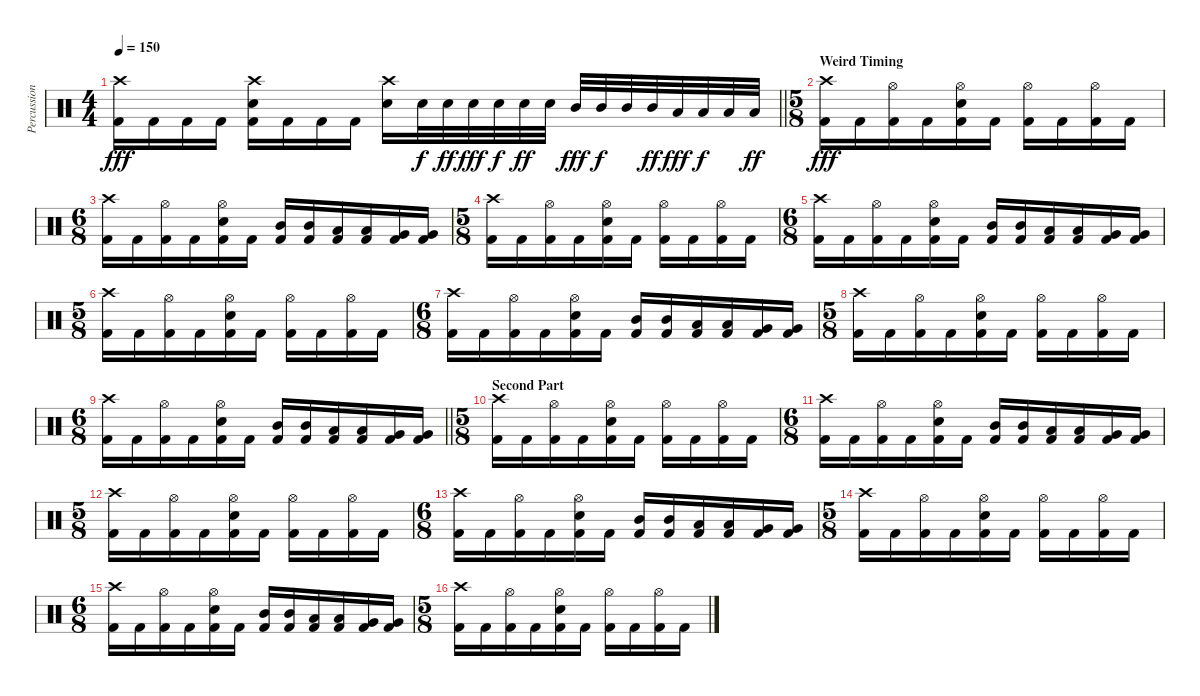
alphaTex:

\track ("Percussion" "Percussion") {instrument percussion}
\staff {score}
\articulation defaults
\ts (4 4)
\tempo 150
\clef neutral
\barLineRight lightlight
\ks c
("Crash high (hit)" "Kick (hit) 2").16{dy fff} "Kick (hit) 2".16 "Kick (hit) 2".16 "Kick (hit) 2".16 ("Crash high (hit)" "Snare (hit) 2" "Kick (hit) 2").16 "Kick (hit) 2".16 "Kick (hit) 2".16 "Kick (hit) 2".16 ("Crash high (hit)" "Snare (hit) 2").16 "Snare (hit) 2".32{dy f} "Snare (hit) 2".32{dy ff} "Snare (hit) 2".32{dy fff} "Snare (hit) 2".32{dy f} "Snare (hit) 2".32{dy ff} "Snare (hit) 2".32 "Mid Tom (hit)".32{dy fff} "Mid Tom (hit)".32{dy f} "Mid Tom (hit)".32 "Mid Tom (hit)".32{dy ff} "Low Tom (hit)".32{dy fff} "Low Tom (hit)".32{dy f} "Low Tom (hit)".32 "Low Tom (hit)".32{dy ff} |
\ts (5 8)
\section ("" "Weird Timing")
("Crash high (hit)" "Kick (hit) 2").16{dy fff} "Kick (hit) 2".16 ("Hi-Hat (open)" "Kick (hit) 2").16 "Kick (hit) 2".16 ("Snare (hit) 2" "Hi-Hat (open)" "Kick (hit) 2").16 "Kick (hit) 2".16 ("Hi-Hat (open)" "Kick (hit) 2").16 "Kick (hit) 2".16 ("Hi-Hat (open)" "Kick (hit) 2").16 "Kick (hit) 2".16 |
\ts (6 8)
("Crash high (hit)" "Kick (hit) 2").16 "Kick (hit) 2".16 ("Hi-Hat (open)" "Kick (hit) 2").16 "Kick (hit) 2".16 ("Snare (hit) 2" "Hi-Hat (open)" "Kick (hit) 2").16 "Kick (hit) 2".16 ("Mid Tom (hit)" "Kick (hit) 2").16 ("Mid Tom (hit)" "Kick (hit) 2").16 ("Low Tom (hit)" "Kick (hit) 2").16 ("Low Tom (hit)" "Kick (hit) 2").16 ("Very Low Tom (hit)" "Kick (hit) 2").16 ("Very Low Tom (hit)" "Kick (hit) 2").16 |
\ts (5 8)
("Crash high (hit)" "Kick (hit) 2").16 "Kick (hit) 2".16 ("Hi-Hat (open)" "Kick (hit) 2").16 "Kick (hit) 2".16 ("Snare (hit) 2" "Hi-Hat (open)" "Kick (hit) 2").16 "Kick (hit) 2".16 ("Hi-Hat (open)" "Kick (hit) 2").16 "Kick (hit) 2".16 ("Hi-Hat (open)" "Kick (hit) 2").16 "Kick (hit) 2".16 |
\ts (6 8)
("Crash high (hit)" "Kick (hit) 2").16 "Kick (hit) 2".16 ("Hi-Hat (open)" "Kick (hit) 2").16 "Kick (hit) 2".16 ("Snare (hit) 2" "Hi-Hat (open)" "Kick (hit) 2").16 "Kick (hit) 2".16 ("Mid Tom (hit)" "Kick (hit) 2").16 ("Mid Tom (hit)" "Kick (hit) 2").16 ("Low Tom (hit)" "Kick (hit) 2").16 ("Low Tom (hit)" "Kick (hit) 2").16 ("Very Low Tom (hit)" "Kick (hit) 2").16 ("Very Low Tom (hit)" "Kick (hit) 2").16 |
\ts (5 8)
("Crash high (hit)" "Kick (hit) 2").16 "Kick (hit) 2".16 ("Hi-Hat (open)" "Kick (hit) 2").16 "Kick (hit) 2".16 ("Snare (hit) 2" "Hi-Hat (open)" "Kick (hit) 2").16 "Kick (hit) 2".16 ("Hi-Hat (open)" "Kick (hit) 2").16 "Kick (hit) 2".16 ("Hi-Hat (open)" "Kick (hit) 2").16 "Kick (hit) 2".16 |
\ts (6 8)
("Crash high (hit)" "Kick (hit) 2").16 "Kick (hit) 2".16 ("Hi-Hat (open)" "Kick (hit) 2").16 "Kick (hit) 2".16 ("Snare (hit) 2" "Hi-Hat (open)" "Kick (hit) 2").16 "Kick (hit) 2".16 ("Mid Tom (hit)" "Kick (hit) 2").16 ("Mid Tom (hit)" "Kick (hit) 2").16 ("Low Tom (hit)" "Kick (hit) 2").16 ("Low Tom (hit)" "Kick (hit) 2").16 ("Very Low Tom (hit)" "Kick (hit) 2").16 ("Very Low Tom (hit)" "Kick (hit) 2").16 |
\ts (5 8)
("Crash high (hit)" "Kick (hit) 2").16 "Kick (hit) 2".16 ("Hi-Hat (open)" "Kick (hit) 2").16 "Kick (hit) 2".16 ("Snare (hit) 2" "Hi-Hat (open)" "Kick (hit) 2").16 "Kick (hit) 2".16 ("Hi-Hat (open)" "Kick (hit) 2").16 "Kick (hit) 2".16 ("Hi-Hat (open)" "Kick (hit) 2").16 "Kick (hit) 2".16 |
\ts (6 8)
\barLineRight lightlight
("Crash high (hit)" "Kick (hit) 2").16 "Kick (hit) 2".16 ("Hi-Hat (open)" "Kick (hit) 2").16 "Kick (hit) 2".16 ("Snare (hit) 2" "Hi-Hat (open)" "Kick (hit) 2").16 "Kick (hit) 2".16 ("Mid Tom (hit)" "Kick (hit) 2").16 ("Mid Tom (hit)" "Kick (hit) 2").16 ("Low Tom (hit)" "Kick (hit) 2").16 ("Low Tom (hit)" "Kick (hit) 2").16 ("Very Low Tom (hit)" "Kick (hit) 2").16 ("Very Low Tom (hit)" "Kick (hit) 2").16 |
\ts (5 8)
\section ("" "Second Part")
("Crash high (hit)" "Kick (hit) 2").16 "Kick (hit) 2".16 ("Hi-Hat (open)" "Kick (hit) 2").16 "Kick (hit) 2".16 ("Snare (hit) 2" "Hi-Hat (open)" "Kick (hit) 2").16 "Kick (hit) 2".16 ("Hi-Hat (open)" "Kick (hit) 2").16 "Kick (hit) 2".16 ("Hi-Hat (open)" "Kick (hit) 2").16 "Kick (hit) 2".16 |
\ts (6 8)
("Crash high (hit)" "Kick (hit) 2").16 "Kick (hit) 2".16 ("Hi-Hat (open)" "Kick (hit) 2").16 "Kick (hit) 2".16 ("Snare (hit) 2" "Hi-Hat (open)" "Kick (hit) 2").16 "Kick (hit) 2".16 ("Mid Tom (hit)" "Kick (hit) 2").16 ("Mid Tom (hit)" "Kick (hit) 2").16 ("Low Tom (hit)" "Kick (hit) 2").16 ("Low Tom (hit)" "Kick (hit) 2").16 ("Very Low Tom (hit)" "Kick (hit) 2").16 ("Very Low Tom (hit)" "Kick (hit) 2").16 |
\ts (5 8)
("Crash high (hit)" "Kick (hit) 2").16 "Kick (hit) 2".16 ("Hi-Hat (open)" "Kick (hit) 2").16 "Kick (hit) 2".16 ("Snare (hit) 2" "Hi-Hat (open)" "Kick (hit) 2").16 "Kick (hit) 2".16 ("Hi-Hat (open)" "Kick (hit) 2").16 "Kick (hit) 2".16 ("Hi-Hat (open)" "Kick (hit) 2").16 "Kick (hit) 2".16 |
\ts (6 8)
("Crash high (hit)" "Kick (hit) 2").16 "Kick (hit) 2".16 ("Hi-Hat (open)" "Kick (hit) 2").16 "Kick (hit) 2".16 ("Snare (hit) 2" "Hi-Hat (open)" "Kick (hit) 2").16 "Kick (hit) 2".16 ("Mid Tom (hit)" "Kick (hit) 2").16 ("Mid Tom (hit)" "Kick (hit) 2").16 ("Low Tom (hit)" "Kick (hit) 2").16 ("Low Tom (hit)" "Kick (hit) 2").16 ("Very Low Tom (hit)" "Kick (hit) 2").16 ("Very Low Tom (hit)" "Kick (hit) 2").16 |
\ts (5 8)
("Crash high (hit)" "Kick (hit) 2").16 "Kick (hit) 2".16 ("Hi-Hat (open)" "Kick (hit) 2").16 "Kick (hit) 2".16 ("Snare (hit) 2" "Hi-Hat (open)" "Kick (hit) 2").16 "Kick (hit) 2".16 ("Hi-Hat (open)" "Kick (hit) 2").16 "Kick (hit) 2".16 ("Hi-Hat (open)" "Kick (hit) 2").16 "Kick (hit) 2".16 |
\ts (6 8)
("Crash high (hit)" "Kick (hit) 2").16 "Kick (hit) 2".16 ("Hi-Hat (open)" "Kick (hit) 2").16 "Kick (hit) 2".16 ("Snare (hit) 2" "Hi-Hat (open)" "Kick (hit) 2").16 "Kick (hit) 2".16 ("Mid Tom (hit)" "Kick (hit) 2").16 ("Mid Tom (hit)" "Kick (hit) 2").16 ("Low Tom (hit)" "Kick (hit) 2").16 ("Low Tom (hit)" "Kick (hit) 2").16 ("Very Low Tom (hit)" "Kick (hit) 2").16 ("Very Low Tom (hit)" "Kick (hit) 2").16 |
\ts (5 8)
("Crash high (hit)" "Kick (hit) 2").16 "Kick (hit) 2".16 ("Hi-Hat (open)" "Kick (hit) 2").16 "Kick (hit) 2".16 ("Snare (hit) 2" "Hi-Hat (open)" "Kick (hit) 2").16 "Kick (hit) 2".16 ("Hi-Hat (open)" "Kick (hit) 2").16 "Kick (hit) 2".16 ("Hi-Hat (open)" "Kick (hit) 2").16 "Kick (hit) 2".16
